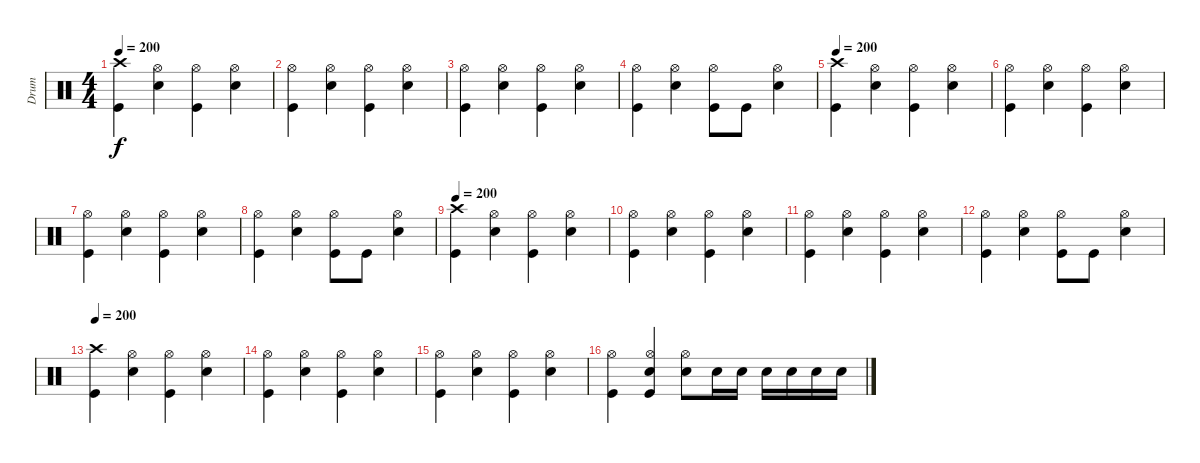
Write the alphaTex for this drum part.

\track ("Drum" "Drum") {instrument percussion}
\staff {score}
\articulation defaults
\ts (4 4)
\tempo 200
\clef neutral
\ks c
("Crash high (hit)" "Kick (hit)").4{dy f} ("Hi-Hat (open)" "Electric Snare (hit)").4 ("Hi-Hat (open)" "Kick (hit)").4 ("Hi-Hat (open)" "Electric Snare (hit)").4 |
("Hi-Hat (open)" "Kick (hit)").4 ("Hi-Hat (open)" "Electric Snare (hit)").4 ("Hi-Hat (open)" "Kick (hit)").4 ("Hi-Hat (open)" "Electric Snare (hit)").4 |
("Hi-Hat (open)" "Kick (hit)").4 ("Hi-Hat (open)" "Electric Snare (hit)").4 ("Hi-Hat (open)" "Kick (hit)").4 ("Hi-Hat (open)" "Electric Snare (hit)").4 |
("Hi-Hat (open)" "Kick (hit)").4 ("Hi-Hat (open)" "Electric Snare (hit)").4 ("Hi-Hat (open)" "Kick (hit)").8 "Kick (hit)".8 ("Hi-Hat (open)" "Electric Snare (hit)").4 |
\tempo 200
("Crash high (hit)" "Kick (hit)").4 ("Hi-Hat (open)" "Electric Snare (hit)").4 ("Hi-Hat (open)" "Kick (hit)").4 ("Hi-Hat (open)" "Electric Snare (hit)").4 |
("Hi-Hat (open)" "Kick (hit)").4 ("Hi-Hat (open)" "Electric Snare (hit)").4 ("Hi-Hat (open)" "Kick (hit)").4 ("Hi-Hat (open)" "Electric Snare (hit)").4 |
("Hi-Hat (open)" "Kick (hit)").4 ("Hi-Hat (open)" "Electric Snare (hit)").4 ("Hi-Hat (open)" "Kick (hit)").4 ("Hi-Hat (open)" "Electric Snare (hit)").4 |
("Hi-Hat (open)" "Kick (hit)").4 ("Hi-Hat (open)" "Electric Snare (hit)").4 ("Hi-Hat (open)" "Kick (hit)").8 "Kick (hit)".8 ("Hi-Hat (open)" "Electric Snare (hit)").4 |
\tempo 200
("Crash high (hit)" "Kick (hit)").4 ("Hi-Hat (open)" "Electric Snare (hit)").4 ("Hi-Hat (open)" "Kick (hit)").4 ("Hi-Hat (open)" "Electric Snare (hit)").4 |
("Hi-Hat (open)" "Kick (hit)").4 ("Hi-Hat (open)" "Electric Snare (hit)").4 ("Hi-Hat (open)" "Kick (hit)").4 ("Hi-Hat (open)" "Electric Snare (hit)").4 |
("Hi-Hat (open)" "Kick (hit)").4 ("Hi-Hat (open)" "Electric Snare (hit)").4 ("Hi-Hat (open)" "Kick (hit)").4 ("Hi-Hat (open)" "Electric Snare (hit)").4 |
("Hi-Hat (open)" "Kick (hit)").4 ("Hi-Hat (open)" "Electric Snare (hit)").4 ("Hi-Hat (open)" "Kick (hit)").8 "Kick (hit)".8 ("Hi-Hat (open)" "Electric Snare (hit)").4 |
\tempo 200
("Crash high (hit)" "Kick (hit)").4 ("Hi-Hat (open)" "Electric Snare (hit)").4 ("Hi-Hat (open)" "Kick (hit)").4 ("Hi-Hat (open)" "Electric Snare (hit)").4 |
("Hi-Hat (open)" "Kick (hit)").4 ("Hi-Hat (open)" "Electric Snare (hit)").4 ("Hi-Hat (open)" "Kick (hit)").4 ("Hi-Hat (open)" "Electric Snare (hit)").4 |
("Hi-Hat (open)" "Kick (hit)").4 ("Hi-Hat (open)" "Electric Snare (hit)").4 ("Hi-Hat (open)" "Kick (hit)").4 ("Hi-Hat (open)" "Electric Snare (hit)").4 |
("Hi-Hat (open)" "Kick (hit)").4 ("Hi-Hat (open)" "Electric Snare (hit)" "Kick (hit)").4 ("Hi-Hat (open)" "Electric Snare (hit)").8 "Electric Snare (hit)".16 "Electric Snare (hit)".16 "Electric Snare (hit)".16 "Electric Snare (hit)".16 "Electric Snare (hit)".16 "Electric Snare (hit)".16
